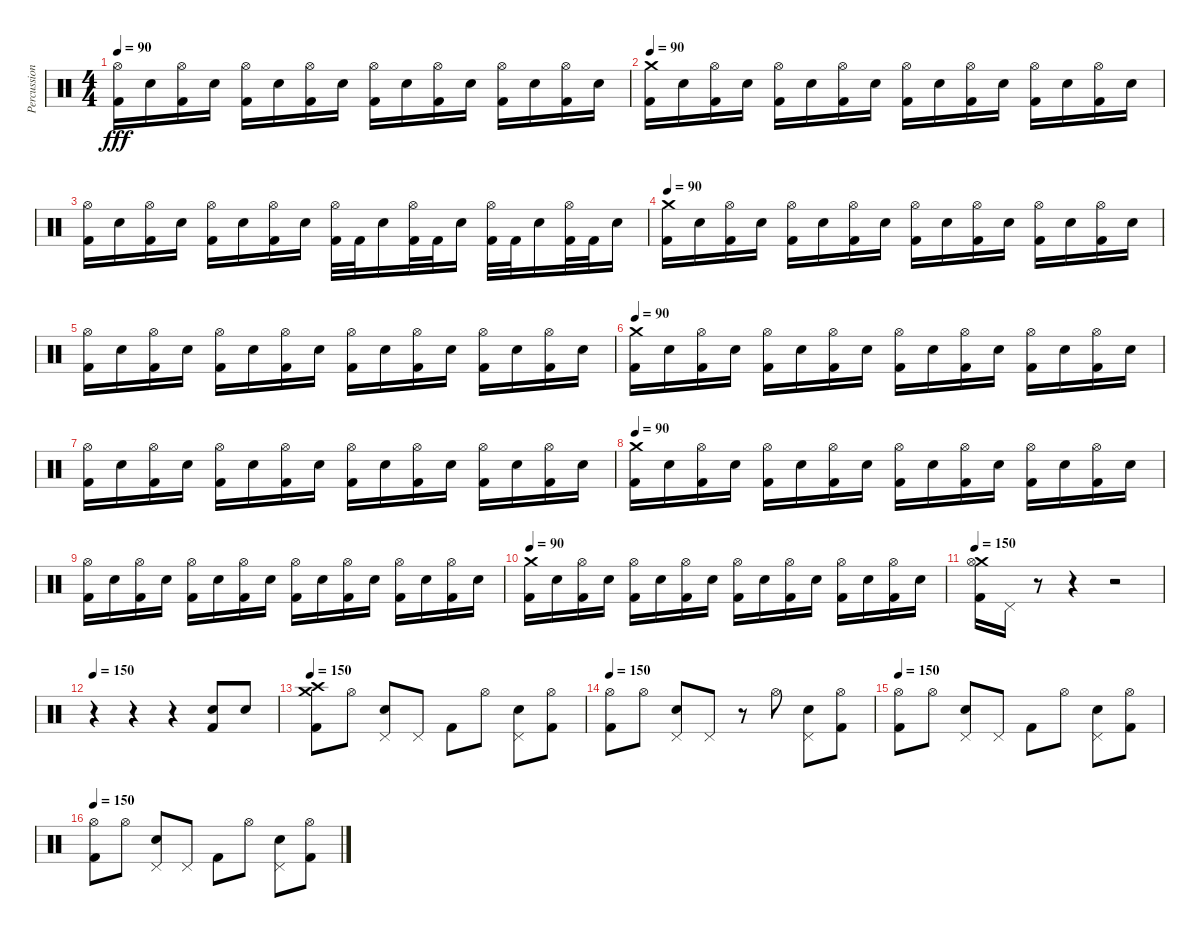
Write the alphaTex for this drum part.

\track ("Percussion" "Percussion") {instrument percussion}
\staff
\articulation defaults
\ts (4 4)
\tempo 90
\clef neutral
\ks c
("Hi-Hat (open)" "Kick (hit) 2").16{dy fff} "Snare (hit) 2".16 ("Hi-Hat (open)" "Kick (hit) 2").16 "Snare (hit) 2".16 ("Hi-Hat (open)" "Kick (hit) 2").16 "Snare (hit) 2".16 ("Hi-Hat (open)" "Kick (hit) 2").16 "Snare (hit) 2".16 ("Hi-Hat (open)" "Kick (hit) 2").16 "Snare (hit) 2".16 ("Hi-Hat (open)" "Kick (hit) 2").16 "Snare (hit) 2".16 ("Hi-Hat (open)" "Kick (hit) 2").16 "Snare (hit) 2".16 ("Hi-Hat (open)" "Kick (hit) 2").16 "Snare (hit) 2".16 |
\tempo 90
("Crash medium (hit)" "Kick (hit) 2").16 "Snare (hit) 2".16 ("Hi-Hat (open)" "Kick (hit) 2").16 "Snare (hit) 2".16 ("Hi-Hat (open)" "Kick (hit) 2").16 "Snare (hit) 2".16 ("Hi-Hat (open)" "Kick (hit) 2").16 "Snare (hit) 2".16 ("Hi-Hat (open)" "Kick (hit) 2").16 "Snare (hit) 2".16 ("Hi-Hat (open)" "Kick (hit) 2").16 "Snare (hit) 2".16 ("Hi-Hat (open)" "Kick (hit) 2").16 "Snare (hit) 2".16 ("Hi-Hat (open)" "Kick (hit) 2").16 "Snare (hit) 2".16 |
("Hi-Hat (open)" "Kick (hit) 2").16 "Snare (hit) 2".16 ("Hi-Hat (open)" "Kick (hit) 2").16 "Snare (hit) 2".16 ("Hi-Hat (open)" "Kick (hit) 2").16 "Snare (hit) 2".16 ("Hi-Hat (open)" "Kick (hit) 2").16 "Snare (hit) 2".16 ("Hi-Hat (open)" "Kick (hit) 2").32 "Kick (hit) 2".32 "Snare (hit) 2".16 ("Hi-Hat (open)" "Kick (hit) 2").32 "Kick (hit) 2".32 "Snare (hit) 2".16 ("Hi-Hat (open)" "Kick (hit) 2").32 "Kick (hit) 2".32 "Snare (hit) 2".16 ("Hi-Hat (open)" "Kick (hit) 2").32 "Kick (hit) 2".32 "Snare (hit) 2".16 |
\tempo 90
("Crash medium (hit)" "Kick (hit) 2").16 "Snare (hit) 2".16 ("Hi-Hat (open)" "Kick (hit) 2").16 "Snare (hit) 2".16 ("Hi-Hat (open)" "Kick (hit) 2").16 "Snare (hit) 2".16 ("Hi-Hat (open)" "Kick (hit) 2").16 "Snare (hit) 2".16 ("Hi-Hat (open)" "Kick (hit) 2").16 "Snare (hit) 2".16 ("Hi-Hat (open)" "Kick (hit) 2").16 "Snare (hit) 2".16 ("Hi-Hat (open)" "Kick (hit) 2").16 "Snare (hit) 2".16 ("Hi-Hat (open)" "Kick (hit) 2").16 "Snare (hit) 2".16 |
("Hi-Hat (open)" "Kick (hit) 2").16 "Snare (hit) 2".16 ("Hi-Hat (open)" "Kick (hit) 2").16 "Snare (hit) 2".16 ("Hi-Hat (open)" "Kick (hit) 2").16 "Snare (hit) 2".16 ("Hi-Hat (open)" "Kick (hit) 2").16 "Snare (hit) 2".16 ("Hi-Hat (open)" "Kick (hit) 2").16 "Snare (hit) 2".16 ("Hi-Hat (open)" "Kick (hit) 2").16 "Snare (hit) 2".16 ("Hi-Hat (open)" "Kick (hit) 2").16 "Snare (hit) 2".16 ("Hi-Hat (open)" "Kick (hit) 2").16 "Snare (hit) 2".16 |
\tempo 90
("Crash medium (hit)" "Kick (hit) 2").16 "Snare (hit) 2".16 ("Hi-Hat (open)" "Kick (hit) 2").16 "Snare (hit) 2".16 ("Hi-Hat (open)" "Kick (hit) 2").16 "Snare (hit) 2".16 ("Hi-Hat (open)" "Kick (hit) 2").16 "Snare (hit) 2".16 ("Hi-Hat (open)" "Kick (hit) 2").16 "Snare (hit) 2".16 ("Hi-Hat (open)" "Kick (hit) 2").16 "Snare (hit) 2".16 ("Hi-Hat (open)" "Kick (hit) 2").16 "Snare (hit) 2".16 ("Hi-Hat (open)" "Kick (hit) 2").16 "Snare (hit) 2".16 |
("Hi-Hat (open)" "Kick (hit) 2").16 "Snare (hit) 2".16 ("Hi-Hat (open)" "Kick (hit) 2").16 "Snare (hit) 2".16 ("Hi-Hat (open)" "Kick (hit) 2").16 "Snare (hit) 2".16 ("Hi-Hat (open)" "Kick (hit) 2").16 "Snare (hit) 2".16 ("Hi-Hat (open)" "Kick (hit) 2").16 "Snare (hit) 2".16 ("Hi-Hat (open)" "Kick (hit) 2").16 "Snare (hit) 2".16 ("Hi-Hat (open)" "Kick (hit) 2").16 "Snare (hit) 2".16 ("Hi-Hat (open)" "Kick (hit) 2").16 "Snare (hit) 2".16 |
\tempo 90
("Crash medium (hit)" "Kick (hit) 2").16 "Snare (hit) 2".16 ("Hi-Hat (open)" "Kick (hit) 2").16 "Snare (hit) 2".16 ("Hi-Hat (open)" "Kick (hit) 2").16 "Snare (hit) 2".16 ("Hi-Hat (open)" "Kick (hit) 2").16 "Snare (hit) 2".16 ("Hi-Hat (open)" "Kick (hit) 2").16 "Snare (hit) 2".16 ("Hi-Hat (open)" "Kick (hit) 2").16 "Snare (hit) 2".16 ("Hi-Hat (open)" "Kick (hit) 2").16 "Snare (hit) 2".16 ("Hi-Hat (open)" "Kick (hit) 2").16 "Snare (hit) 2".16 |
("Hi-Hat (open)" "Kick (hit) 2").16 "Snare (hit) 2".16 ("Hi-Hat (open)" "Kick (hit) 2").16 "Snare (hit) 2".16 ("Hi-Hat (open)" "Kick (hit) 2").16 "Snare (hit) 2".16 ("Hi-Hat (open)" "Kick (hit) 2").16 "Snare (hit) 2".16 ("Hi-Hat (open)" "Kick (hit) 2").16 "Snare (hit) 2".16 ("Hi-Hat (open)" "Kick (hit) 2").16 "Snare (hit) 2".16 ("Hi-Hat (open)" "Kick (hit) 2").16 "Snare (hit) 2".16 ("Hi-Hat (open)" "Kick (hit) 2").16 "Snare (hit) 2".16 |
\tempo 90
("Crash medium (hit)" "Kick (hit) 2").16 "Snare (hit) 2".16 ("Hi-Hat (open)" "Kick (hit) 2").16 "Snare (hit) 2".16 ("Hi-Hat (open)" "Kick (hit) 2").16 "Snare (hit) 2".16 ("Hi-Hat (open)" "Kick (hit) 2").16 "Snare (hit) 2".16 ("Hi-Hat (open)" "Kick (hit) 2").16 "Snare (hit) 2".16 ("Hi-Hat (open)" "Kick (hit) 2").16 "Snare (hit) 2".16 ("Hi-Hat (open)" "Kick (hit) 2").16 "Snare (hit) 2".16 ("Hi-Hat (open)" "Kick (hit) 2").16 "Snare (hit) 2".16 |
\tempo 150
("Crash medium (hit)" "Hi-Hat (open)" "Kick (hit) 2").16 "Pedal Hi-Hat (hit)".16 r.8 r.4 r.2 |
\tempo 150
r.4 r.4 r.4 ("Snare (hit) 2" "Kick (hit) 2").8 "Snare (hit) 2".8 |
\tempo 150
("Crash high (hit)" "Crash medium (hit)" "Kick (hit) 2").8 "Hi-Hat (open)".8 ("Pedal Hi-Hat (hit)" "Snare (hit) 2").8 "Pedal Hi-Hat (hit)".8 "Kick (hit) 2".8 "Hi-Hat (open)".8 ("Pedal Hi-Hat (hit)" "Snare (hit) 2").8 ("Hi-Hat (open)" "Kick (hit) 2").8 |
\tempo 150
("Hi-Hat (open)" "Kick (hit) 2").8 "Hi-Hat (open)".8 ("Pedal Hi-Hat (hit)" "Snare (hit) 2").8 "Pedal Hi-Hat (hit)".8 r.8 "Hi-Hat (open)".8 ("Pedal Hi-Hat (hit)" "Snare (hit) 2").8 ("Hi-Hat (open)" "Kick (hit) 2").8 |
\tempo 150
("Hi-Hat (open)" "Kick (hit) 2").8 "Hi-Hat (open)".8 ("Pedal Hi-Hat (hit)" "Snare (hit) 2").8 "Pedal Hi-Hat (hit)".8 "Kick (hit) 2".8 "Hi-Hat (open)".8 ("Pedal Hi-Hat (hit)" "Snare (hit) 2").8 ("Hi-Hat (open)" "Kick (hit) 2").8 |
\tempo 150
("Hi-Hat (open)" "Kick (hit) 2").8 "Hi-Hat (open)".8 ("Pedal Hi-Hat (hit)" "Snare (hit) 2").8 "Pedal Hi-Hat (hit)".8 "Kick (hit) 2".8 "Hi-Hat (open)".8 ("Pedal Hi-Hat (hit)" "Snare (hit) 2").8 ("Hi-Hat (open)" "Kick (hit) 2").8
